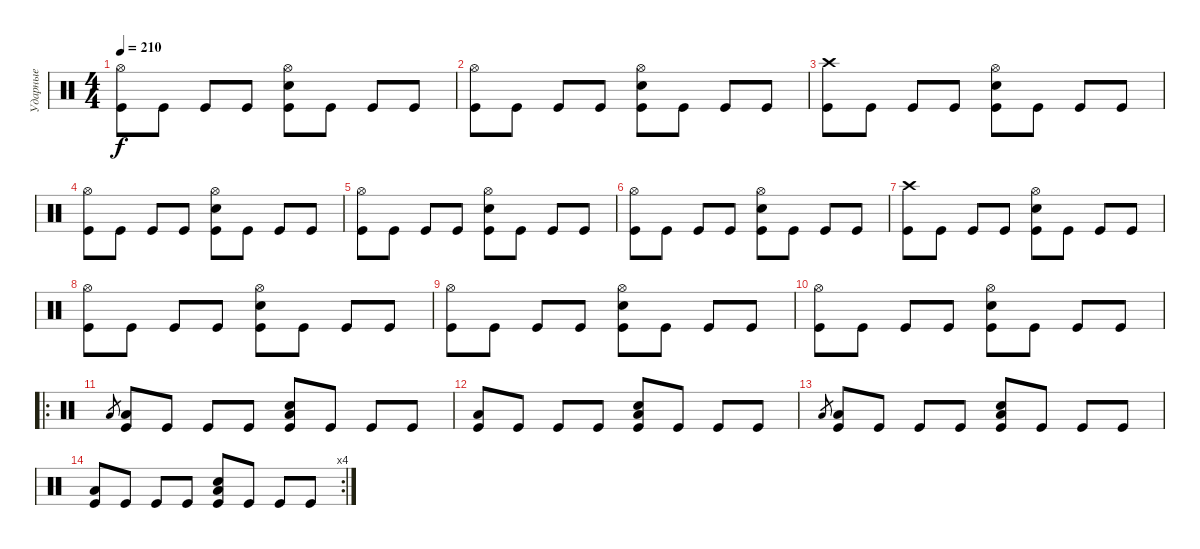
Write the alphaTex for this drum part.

\track ("Ударные" "Ударные") {instrument percussion}
\staff {score}
\articulation defaults
\ts (4 4)
\tempo 210
\clef neutral
\ks c
("Hi-Hat (open)" "Kick (hit)").8{dy f} "Kick (hit)".8 "Kick (hit)".8 "Kick (hit)".8 ("Hi-Hat (open)" "Snare (hit) 2" "Kick (hit)").8 "Kick (hit)".8 "Kick (hit)".8 "Kick (hit)".8 |
("Hi-Hat (open)" "Kick (hit)").8 "Kick (hit)".8 "Kick (hit)".8 "Kick (hit)".8 ("Hi-Hat (open)" "Snare (hit) 2" "Kick (hit)").8 "Kick (hit)".8 "Kick (hit)".8 "Kick (hit)".8 |
("Crash high (hit)" "Kick (hit)").8 "Kick (hit)".8 "Kick (hit)".8 "Kick (hit)".8 ("Hi-Hat (open)" "Snare (hit) 2" "Kick (hit)").8 "Kick (hit)".8 "Kick (hit)".8 "Kick (hit)".8 |
("Hi-Hat (open)" "Kick (hit)").8 "Kick (hit)".8 "Kick (hit)".8 "Kick (hit)".8 ("Hi-Hat (open)" "Snare (hit) 2" "Kick (hit)").8 "Kick (hit)".8 "Kick (hit)".8 "Kick (hit)".8 |
("Hi-Hat (open)" "Kick (hit)").8 "Kick (hit)".8 "Kick (hit)".8 "Kick (hit)".8 ("Hi-Hat (open)" "Snare (hit) 2" "Kick (hit)").8 "Kick (hit)".8 "Kick (hit)".8 "Kick (hit)".8 |
("Hi-Hat (open)" "Kick (hit)").8 "Kick (hit)".8 "Kick (hit)".8 "Kick (hit)".8 ("Hi-Hat (open)" "Snare (hit) 2" "Kick (hit)").8 "Kick (hit)".8 "Kick (hit)".8 "Kick (hit)".8 |
("Crash high (hit)" "Kick (hit)").8 "Kick (hit)".8 "Kick (hit)".8 "Kick (hit)".8 ("Hi-Hat (open)" "Snare (hit) 2" "Kick (hit)").8 "Kick (hit)".8 "Kick (hit)".8 "Kick (hit)".8 |
("Hi-Hat (open)" "Kick (hit)").8 "Kick (hit)".8 "Kick (hit)".8 "Kick (hit)".8 ("Hi-Hat (open)" "Snare (hit) 2" "Kick (hit)").8 "Kick (hit)".8 "Kick (hit)".8 "Kick (hit)".8 |
("Hi-Hat (open)" "Kick (hit)").8 "Kick (hit)".8 "Kick (hit)".8 "Kick (hit)".8 ("Hi-Hat (open)" "Snare (hit) 2" "Kick (hit)").8 "Kick (hit)".8 "Kick (hit)".8 "Kick (hit)".8 |
("Hi-Hat (open)" "Kick (hit)").8 "Kick (hit)".8 "Kick (hit)".8 "Kick (hit)".8 ("Hi-Hat (open)" "Snare (hit) 2" "Kick (hit)").8 "Kick (hit)".8 "Kick (hit)".8 "Kick (hit)".8 |
\ro "Low Tom (hit)".8{gr}
("Low Tom (hit)" "Kick (hit)").8 "Kick (hit)".8 "Kick (hit)".8 "Kick (hit)".8 ("Low Floor Tom (hit)" "Snare (hit) 2" "Kick (hit)").8 "Kick (hit)".8 "Kick (hit)".8 "Kick (hit)".8 |
("Low Floor Tom (hit)" "Kick (hit)").8 "Kick (hit)".8 "Kick (hit)".8 "Kick (hit)".8 ("Low Floor Tom (hit)" "Snare (hit) 2" "Kick (hit)").8 "Kick (hit)".8 "Kick (hit)".8 "Kick (hit)".8 |
"Low Tom (hit)".8{gr} ("Low Tom (hit)" "Kick (hit)").8 "Kick (hit)".8 "Kick (hit)".8 "Kick (hit)".8 ("Low Floor Tom (hit)" "Snare (hit) 2" "Kick (hit)").8 "Kick (hit)".8 "Kick (hit)".8 "Kick (hit)".8 |
\rc 4
("Low Floor Tom (hit)" "Kick (hit)").8 "Kick (hit)".8 "Kick (hit)".8 "Kick (hit)".8 ("Low Floor Tom (hit)" "Snare (hit) 2" "Kick (hit)").8 "Kick (hit)".8 "Kick (hit)".8 "Kick (hit)".8
